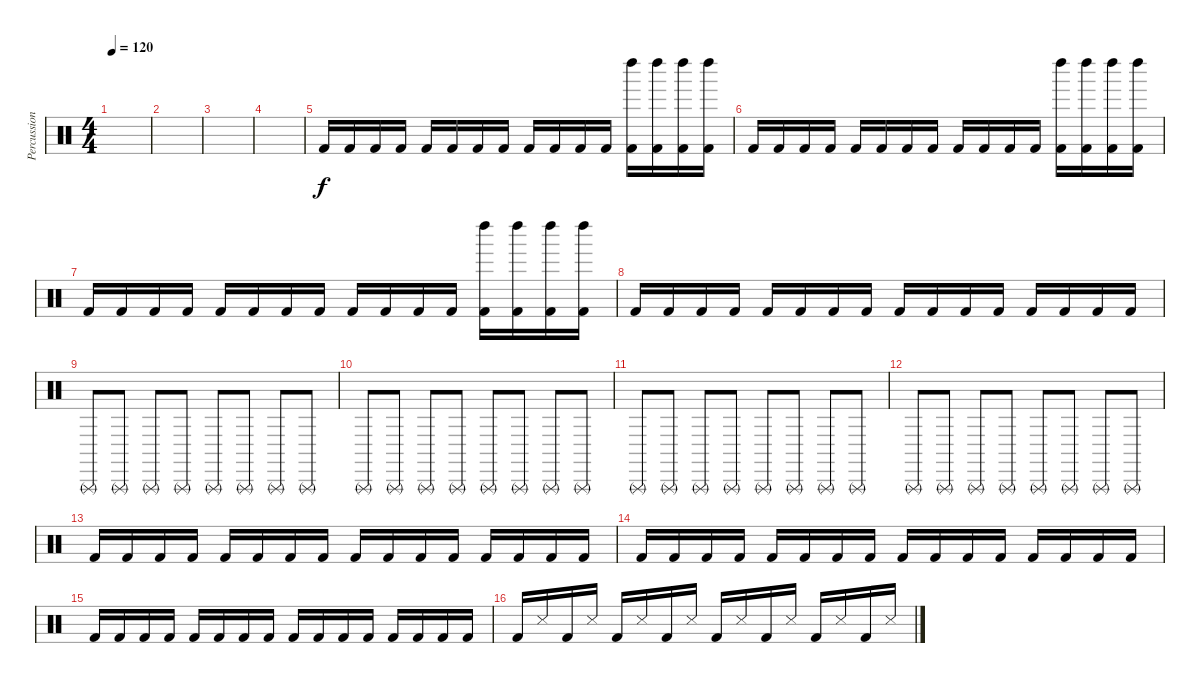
\track ("Percussion" "Percussion") {instrument percussion}
\staff {score}
\articulation defaults
\ts (4 4)
\tempo 120
\clef neutral
\ks c
|
|
|
|
"Kick (hit) 2".16 "Kick (hit) 2".16 "Kick (hit) 2".16 "Kick (hit) 2".16 "Kick (hit) 2".16 "Kick (hit) 2".16 "Kick (hit) 2".16 "Kick (hit) 2".16 "Kick (hit) 2".16 "Kick (hit) 2".16 "Kick (hit) 2".16 "Kick (hit) 2".16 ("Kick (hit) 2" "Left Maraca (hit)").16 ("Kick (hit) 2" "Left Maraca (hit)").16 ("Kick (hit) 2" "Left Maraca (hit)").16 ("Kick (hit) 2" "Left Maraca (hit)").16 |
"Kick (hit) 2".16 "Kick (hit) 2".16 "Kick (hit) 2".16 "Kick (hit) 2".16 "Kick (hit) 2".16 "Kick (hit) 2".16 "Kick (hit) 2".16 "Kick (hit) 2".16 "Kick (hit) 2".16 "Kick (hit) 2".16 "Kick (hit) 2".16 "Kick (hit) 2".16 ("Kick (hit) 2" "Left Maraca (hit)").16 ("Kick (hit) 2" "Left Maraca (hit)").16 ("Kick (hit) 2" "Left Maraca (hit)").16 ("Kick (hit) 2" "Left Maraca (hit)").16 |
"Kick (hit) 2".16 "Kick (hit) 2".16 "Kick (hit) 2".16 "Kick (hit) 2".16 "Kick (hit) 2".16 "Kick (hit) 2".16 "Kick (hit) 2".16 "Kick (hit) 2".16 "Kick (hit) 2".16 "Kick (hit) 2".16 "Kick (hit) 2".16 "Kick (hit) 2".16 ("Kick (hit) 2" "Left Maraca (hit)").16 ("Kick (hit) 2" "Left Maraca (hit)").16 ("Kick (hit) 2" "Left Maraca (hit)").16 ("Kick (hit) 2" "Left Maraca (hit)").16 |
"Kick (hit) 2".16 "Kick (hit) 2".16 "Kick (hit) 2".16 "Kick (hit) 2".16 "Kick (hit) 2".16 "Kick (hit) 2".16 "Kick (hit) 2".16 "Kick (hit) 2".16 "Kick (hit) 2".16 "Kick (hit) 2".16 "Kick (hit) 2".16 "Kick (hit) 2".16 "Kick (hit) 2".16 "Kick (hit) 2".16 "Kick (hit) 2".16 "Kick (hit) 2".16 |
"Triangle (rnute)".8 "Triangle (rnute)".8 "Triangle (rnute)".8 "Triangle (rnute)".8 "Triangle (rnute)".8 "Triangle (rnute)".8 "Triangle (rnute)".8 "Triangle (rnute)".8 |
"Triangle (rnute)".8 "Triangle (rnute)".8 "Triangle (rnute)".8 "Triangle (rnute)".8 "Triangle (rnute)".8 "Triangle (rnute)".8 "Triangle (rnute)".8 "Triangle (rnute)".8 |
"Triangle (rnute)".8 "Triangle (rnute)".8 "Triangle (rnute)".8 "Triangle (rnute)".8 "Triangle (rnute)".8 "Triangle (rnute)".8 "Triangle (rnute)".8 "Triangle (rnute)".8 |
"Triangle (rnute)".8 "Triangle (rnute)".8 "Triangle (rnute)".8 "Triangle (rnute)".8 "Triangle (rnute)".8 "Triangle (rnute)".8 "Triangle (rnute)".8 "Triangle (rnute)".8 |
"Kick (hit) 2".16 "Kick (hit) 2".16 "Kick (hit) 2".16 "Kick (hit) 2".16 "Kick (hit) 2".16 "Kick (hit) 2".16 "Kick (hit) 2".16 "Kick (hit) 2".16 "Kick (hit) 2".16 "Kick (hit) 2".16 "Kick (hit) 2".16 "Kick (hit) 2".16 "Kick (hit) 2".16 "Kick (hit) 2".16 "Kick (hit) 2".16 "Kick (hit) 2".16 |
"Kick (hit) 2".16 "Kick (hit) 2".16 "Kick (hit) 2".16 "Kick (hit) 2".16 "Kick (hit) 2".16 "Kick (hit) 2".16 "Kick (hit) 2".16 "Kick (hit) 2".16 "Kick (hit) 2".16 "Kick (hit) 2".16 "Kick (hit) 2".16 "Kick (hit) 2".16 "Kick (hit) 2".16 "Kick (hit) 2".16 "Kick (hit) 2".16 "Kick (hit) 2".16 |
"Kick (hit) 2".16 "Kick (hit) 2".16 "Kick (hit) 2".16 "Kick (hit) 2".16 "Kick (hit) 2".16 "Kick (hit) 2".16 "Kick (hit) 2".16 "Kick (hit) 2".16 "Kick (hit) 2".16 "Kick (hit) 2".16 "Kick (hit) 2".16 "Kick (hit) 2".16 "Kick (hit) 2".16 "Kick (hit) 2".16 "Kick (hit) 2".16 "Kick (hit) 2".16 |
"Kick (hit) 2".16 "Snare (side stick) 3".16 "Kick (hit) 2".16 "Snare (side stick) 3".16 "Kick (hit) 2".16 "Snare (side stick) 3".16 "Kick (hit) 2".16 "Snare (side stick) 3".16 "Kick (hit) 2".16 "Snare (side stick) 3".16 "Kick (hit) 2".16 "Snare (side stick) 3".16 "Kick (hit) 2".16 "Snare (side stick) 3".16 "Kick (hit) 2".16 "Snare (side stick) 3".16
